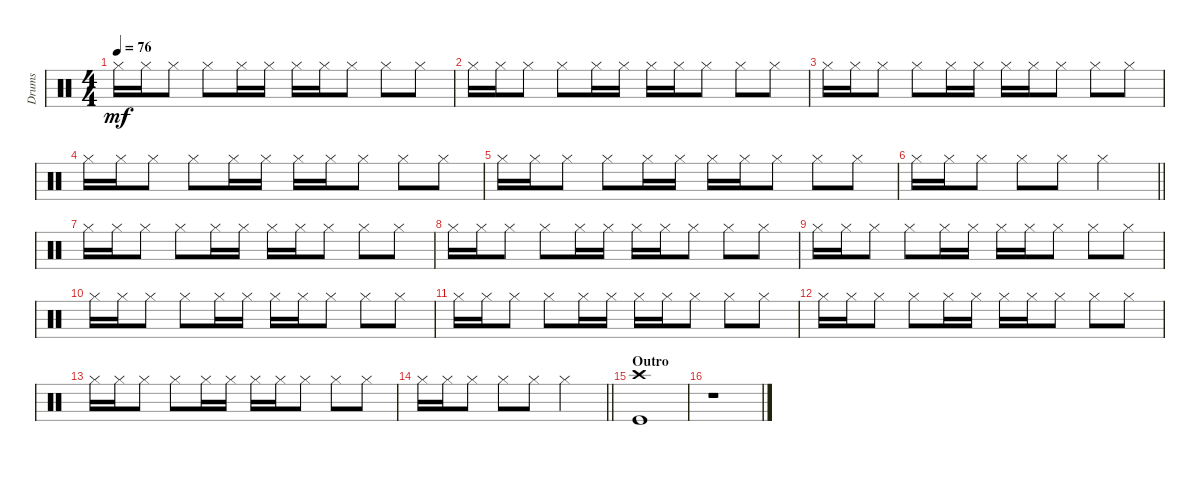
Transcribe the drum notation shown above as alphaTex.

\track ("Drums" "Drums") {instrument percussion}
\staff {score}
\articulation defaults
\ts (4 4)
\tempo 76
\clef neutral
\ks c "Hi-Hat (closed)".16{dy mf} "Hi-Hat (closed)".16 "Hi-Hat (closed)".8 "Hi-Hat (closed)".8 "Hi-Hat (closed)".16 "Hi-Hat (closed)".16 "Hi-Hat (closed)".16 "Hi-Hat (closed)".16 "Hi-Hat (closed)".8 "Hi-Hat (closed)".8 "Hi-Hat (closed)".8
|
"Hi-Hat (closed)".16 "Hi-Hat (closed)".16 "Hi-Hat (closed)".8 "Hi-Hat (closed)".8 "Hi-Hat (closed)".16 "Hi-Hat (closed)".16 "Hi-Hat (closed)".16 "Hi-Hat (closed)".16 "Hi-Hat (closed)".8 "Hi-Hat (closed)".8 "Hi-Hat (closed)".8 |
"Hi-Hat (closed)".16 "Hi-Hat (closed)".16 "Hi-Hat (closed)".8 "Hi-Hat (closed)".8 "Hi-Hat (closed)".16 "Hi-Hat (closed)".16 "Hi-Hat (closed)".16 "Hi-Hat (closed)".16 "Hi-Hat (closed)".8 "Hi-Hat (closed)".8 "Hi-Hat (closed)".8 |
"Hi-Hat (closed)".16 "Hi-Hat (closed)".16 "Hi-Hat (closed)".8 "Hi-Hat (closed)".8 "Hi-Hat (closed)".16 "Hi-Hat (closed)".16 "Hi-Hat (closed)".16 "Hi-Hat (closed)".16 "Hi-Hat (closed)".8 "Hi-Hat (closed)".8 "Hi-Hat (closed)".8 |
"Hi-Hat (closed)".16 "Hi-Hat (closed)".16 "Hi-Hat (closed)".8 "Hi-Hat (closed)".8 "Hi-Hat (closed)".16 "Hi-Hat (closed)".16 "Hi-Hat (closed)".16 "Hi-Hat (closed)".16 "Hi-Hat (closed)".8 "Hi-Hat (closed)".8 "Hi-Hat (closed)".8 |
\barLineRight lightlight "Hi-Hat (closed)".16 "Hi-Hat (closed)".16 "Hi-Hat (closed)".8 "Hi-Hat (closed)".8 "Hi-Hat (closed)".8 "Hi-Hat (closed)".2
|
"Hi-Hat (closed)".16 "Hi-Hat (closed)".16 "Hi-Hat (closed)".8 "Hi-Hat (closed)".8 "Hi-Hat (closed)".16 "Hi-Hat (closed)".16 "Hi-Hat (closed)".16 "Hi-Hat (closed)".16 "Hi-Hat (closed)".8 "Hi-Hat (closed)".8 "Hi-Hat (closed)".8 |
"Hi-Hat (closed)".16 "Hi-Hat (closed)".16 "Hi-Hat (closed)".8 "Hi-Hat (closed)".8 "Hi-Hat (closed)".16 "Hi-Hat (closed)".16 "Hi-Hat (closed)".16 "Hi-Hat (closed)".16 "Hi-Hat (closed)".8 "Hi-Hat (closed)".8 "Hi-Hat (closed)".8 |
"Hi-Hat (closed)".16 "Hi-Hat (closed)".16 "Hi-Hat (closed)".8 "Hi-Hat (closed)".8 "Hi-Hat (closed)".16 "Hi-Hat (closed)".16 "Hi-Hat (closed)".16 "Hi-Hat (closed)".16 "Hi-Hat (closed)".8 "Hi-Hat (closed)".8 "Hi-Hat (closed)".8 |
"Hi-Hat (closed)".16 "Hi-Hat (closed)".16 "Hi-Hat (closed)".8 "Hi-Hat (closed)".8 "Hi-Hat (closed)".16 "Hi-Hat (closed)".16 "Hi-Hat (closed)".16 "Hi-Hat (closed)".16 "Hi-Hat (closed)".8 "Hi-Hat (closed)".8 "Hi-Hat (closed)".8 |
"Hi-Hat (closed)".16 "Hi-Hat (closed)".16 "Hi-Hat (closed)".8 "Hi-Hat (closed)".8 "Hi-Hat (closed)".16 "Hi-Hat (closed)".16 "Hi-Hat (closed)".16 "Hi-Hat (closed)".16 "Hi-Hat (closed)".8 "Hi-Hat (closed)".8 "Hi-Hat (closed)".8 |
"Hi-Hat (closed)".16 "Hi-Hat (closed)".16 "Hi-Hat (closed)".8 "Hi-Hat (closed)".8 "Hi-Hat (closed)".16 "Hi-Hat (closed)".16 "Hi-Hat (closed)".16 "Hi-Hat (closed)".16 "Hi-Hat (closed)".8 "Hi-Hat (closed)".8 "Hi-Hat (closed)".8 |
"Hi-Hat (closed)".16 "Hi-Hat (closed)".16 "Hi-Hat (closed)".8 "Hi-Hat (closed)".8 "Hi-Hat (closed)".16 "Hi-Hat (closed)".16 "Hi-Hat (closed)".16 "Hi-Hat (closed)".16 "Hi-Hat (closed)".8 "Hi-Hat (closed)".8 "Hi-Hat (closed)".8 |
\barLineRight lightlight "Hi-Hat (closed)".16 "Hi-Hat (closed)".16 "Hi-Hat (closed)".8 "Hi-Hat (closed)".8 "Hi-Hat (closed)".8 "Hi-Hat (closed)".2
|
\section ("" "Outro")
("Crash high (hit)" "Kick (hit)").1 |
r.1
